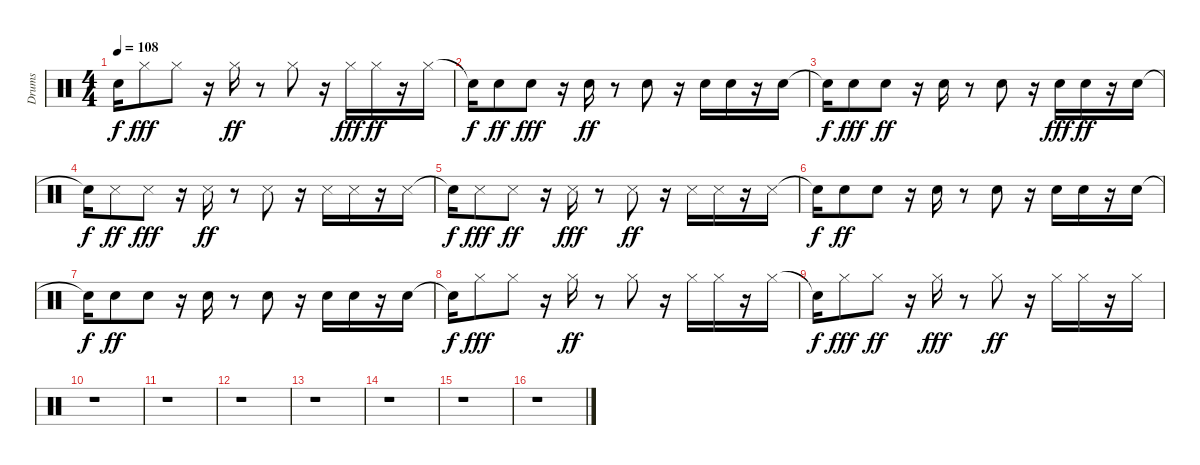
\track ("Drums" "Drums") {instrument percussion}
\staff {score}
\articulation defaults
\ts (4 4)
\tempo 108
\clef neutral
\ks c "Snare (hit)"{t}.16{dy f} "Hi-Hat (closed)".8{dy fff} "Hi-Hat (closed)".8
r.16 "Hi-Hat (closed)".16{dy ff} r.8 "Hi-Hat (closed)".8 r.16 "Hi-Hat (closed)".16{dy fff} "Hi-Hat (closed)".16{dy ff} r.16 "Hi-Hat (closed)".16 |
"Snare (hit)"{t}.16{dy f} "Metronome (bell)".8{dy ff} "Metronome (bell)".8{dy fff} r.16 "Metronome (bell)".16{dy ff} r.8 "Metronome (bell)".8 r.16 "Metronome (bell)".16 "Metronome (bell)".16 r.16 "Metronome (bell)".16 |
"Snare (hit)"{t}.16{dy f} "Metronome (bell)".8{dy fff} "Metronome (bell)".8{dy ff} r.16 "Metronome (bell)".16 r.8 "Metronome (bell)".8 r.16 "Metronome (bell)".16{dy fff} "Metronome (bell)".16{dy ff} r.16 "Metronome (bell)".16 |
"Snare (hit)"{t}.16{dy f} "Snare (side stick) 3".8{dy ff} "Snare (side stick) 3".8{dy fff} r.16 "Snare (side stick) 3".16{dy ff} r.8 "Snare (side stick) 3".8 r.16 "Snare (side stick) 3".16 "Snare (side stick) 3".16 r.16 "Snare (side stick) 3".16 |
"Snare (hit)"{t}.16{dy f} "Snare (side stick) 3".8{dy fff} "Snare (side stick) 3".8{dy ff} r.16 "Snare (side stick) 3".16{dy fff} r.8 "Snare (side stick) 3".8{dy ff} r.16 "Snare (side stick) 3".16 "Snare (side stick) 3".16 r.16 "Snare (side stick) 3".16 |
"Snare (hit)"{t}.16{dy f} "Hand Clap (hit)".8{dy ff} "Hand Clap (hit)".8 r.16 "Hand Clap (hit)".16 r.8 "Hand Clap (hit)".8 r.16 "Hand Clap (hit)".16 "Hand Clap (hit)".16 r.16 "Hand Clap (hit)".16 |
"Snare (hit)"{t}.16{dy f} "Hand Clap (hit)".8{dy ff} "Hand Clap (hit)".8 r.16 "Hand Clap (hit)".16 r.8 "Hand Clap (hit)".8 r.16 "Hand Clap (hit)".16 "Hand Clap (hit)".16 r.16 "Hand Clap (hit)".16 |
"Snare (hit)"{t}.16{dy f} "Hi-Hat (closed)".8{dy fff} "Hi-Hat (closed)".8 r.16 "Hi-Hat (closed)".16{dy ff} r.8 "Hi-Hat (closed)".8 r.16 "Hi-Hat (closed)".16 "Hi-Hat (closed)".16 r.16 "Hi-Hat (closed)".16 |
"Snare (hit)"{t}.16{dy f} "Hi-Hat (closed)".8{dy fff} "Hi-Hat (closed)".8{dy ff} r.16 "Hi-Hat (closed)".16{dy fff} r.8 "Hi-Hat (closed)".8{dy ff} r.16 "Hi-Hat (closed)".16 "Hi-Hat (closed)".16 r.16 "Hi-Hat (closed)".16 |
r.1 |
r.1 |
r.1 |
r.1 |
r.1 |
r.1 |
r.1
